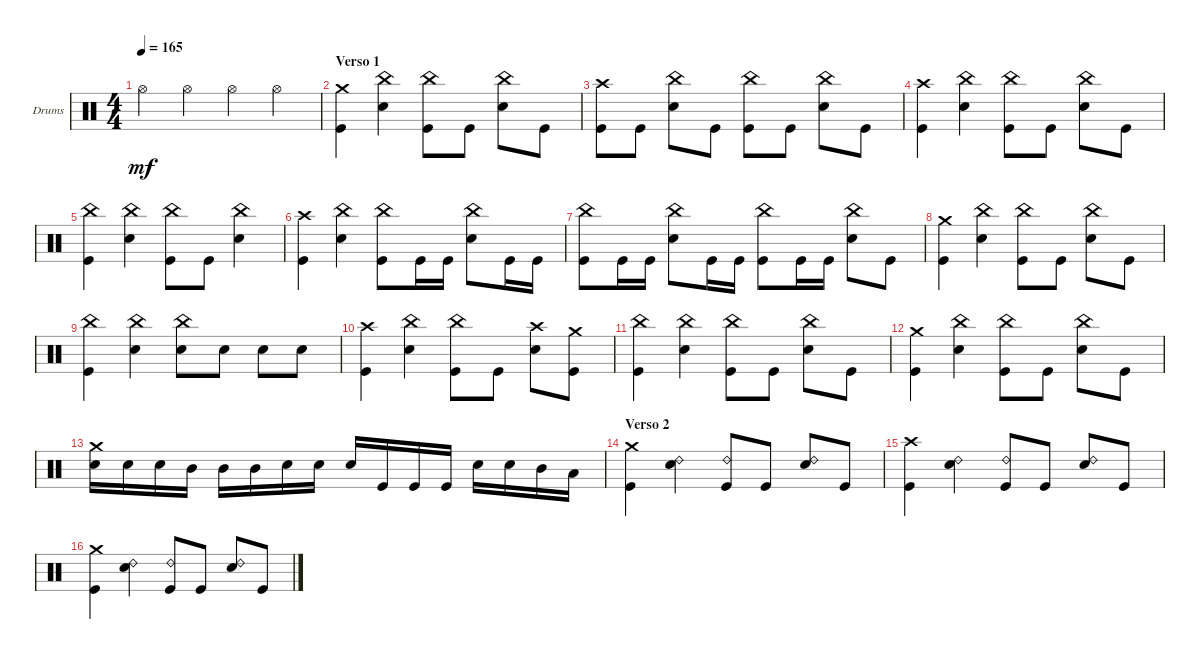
\bracketExtendMode groupsimilarinstruments
\firstSystemTrackNameOrientation horizontal
\otherSystemsTrackNameOrientation horizontal
\track ("Drums" "Drums") {solo instrument percussion}
\staff {score}
\articulation defaults
\ts (4 4)
\tempo 165
\clef neutral
\ks c "Hi-Hat (open)".4{dy mf} "Hi-Hat (open)".4 "Hi-Hat (open)".4 "Hi-Hat (open)".4
|
\section ("" "Verso 1")
("Kick (hit)" "Crash medium (hit)").4 ("Snare (hit) 2" "China (hit)").4 ("Kick (hit)" "China (hit)").8 "Kick (hit)".8 ("Snare (hit) 2" "China (hit)").8 "Kick (hit)".8 |
("Kick (hit)" "Crash high (hit)").8 "Kick (hit)".8 ("Snare (hit) 2" "China (hit)").8 "Kick (hit)".8 ("Kick (hit)" "China (hit)").8 "Kick (hit)".8 ("Snare (hit) 2" "China (hit)").8 "Kick (hit)".8 |
("Kick (hit)" "Crash high (hit)").4 ("Snare (hit) 2" "China (hit)").4 ("Kick (hit)" "China (hit)").8 "Kick (hit)".8 ("Snare (hit) 2" "China (hit)").8 "Kick (hit)".8 |
("Kick (hit)" "China (hit)").4 ("Snare (hit) 2" "China (hit)").4 ("Kick (hit)" "China (hit)").8 "Kick (hit)".8 ("Snare (hit) 2" "China (hit)").4 |
("Kick (hit)" "Crash high (hit)").4 ("Snare (hit) 2" "China (hit)").4 ("China (hit)" "Kick (hit)").8 "Kick (hit)".16 "Kick (hit)".16 ("Snare (hit) 2" "China (hit)").8 "Kick (hit)".16 "Kick (hit)".16 |
("Kick (hit)" "China (hit)").8 "Kick (hit)".16 "Kick (hit)".16 ("Snare (hit) 2" "China (hit)").8 "Kick (hit)".16 "Kick (hit)".16 ("Kick (hit)" "China (hit)").8 "Kick (hit)".16 "Kick (hit)".16 ("Snare (hit) 2" "China (hit)").8 "Kick (hit)".8 |
("Kick (hit)" "Crash medium (hit)").4 ("Snare (hit) 2" "China (hit)").4 ("Kick (hit)" "China (hit)").8 "Kick (hit)".8 ("Snare (hit) 2" "China (hit)").8 "Kick (hit)".8 |
("Kick (hit)" "China (hit)").4 ("Snare (hit) 2" "China (hit)").4 ("China (hit)" "Snare (hit) 2").8 "Snare (hit) 2".8 "Snare (hit) 2".8 "Snare (hit) 2".8 |
("Kick (hit)" "Crash high (hit)").4 ("Snare (hit) 2" "China (hit)").4 ("Kick (hit)" "China (hit)").8 "Kick (hit)".8 ("Snare (hit) 2" "Crash high (hit)").8 ("Kick (hit)" "Crash medium (hit)").8 |
("Kick (hit)" "China (hit)").4 ("Snare (hit) 2" "China (hit)").4 ("Kick (hit)" "China (hit)").8 "Kick (hit)".8 ("Snare (hit) 2" "China (hit)").8 "Kick (hit)".8 |
("Kick (hit)" "Crash medium (hit)").4 ("Snare (hit) 2" "China (hit)").4 ("Kick (hit)" "China (hit)").8 "Kick (hit)".8 ("Snare (hit) 2" "China (hit)").8 "Kick (hit)".8 |
("Crash medium (hit)" "Snare (hit) 2").16 "Snare (hit) 2".16 "Snare (hit) 2".16 "Mid Tom (hit)".16 "Mid Tom (hit)".16 "Mid Tom (hit)".16 "Snare (hit) 2".16 "Snare (hit) 2".16 "Snare (hit) 2".16 "Kick (hit)".16 "Kick (hit)".16 "Kick (hit)".16 "Snare (hit) 2".16 "Snare (hit) 2".16 "Mid Tom (hit)".16 "Low Tom (hit)".16 |
\section ("" "Verso 2")
("Kick (hit)" "Crash medium (hit)").4 ("Snare (hit) 2" "Ride (bell) 2").4 ("Kick (hit)" "Ride (bell) 2").8 "Kick (hit)".8 ("Snare (hit) 2" "Ride (bell) 2").8 "Kick (hit)".8 |
("Kick (hit)" "Crash high (hit)").4 ("Snare (hit) 2" "Ride (bell) 2").4 ("Kick (hit)" "Ride (bell) 2").8 "Kick (hit)".8 ("Snare (hit) 2" "Ride (bell) 2").8 "Kick (hit)".8 |
("Kick (hit)" "Crash medium (hit)").4 ("Snare (hit) 2" "Ride (bell) 2").4 ("Kick (hit)" "Ride (bell) 2").8 "Kick (hit)".8 ("Snare (hit) 2" "Ride (bell) 2").8 "Kick (hit)".8
